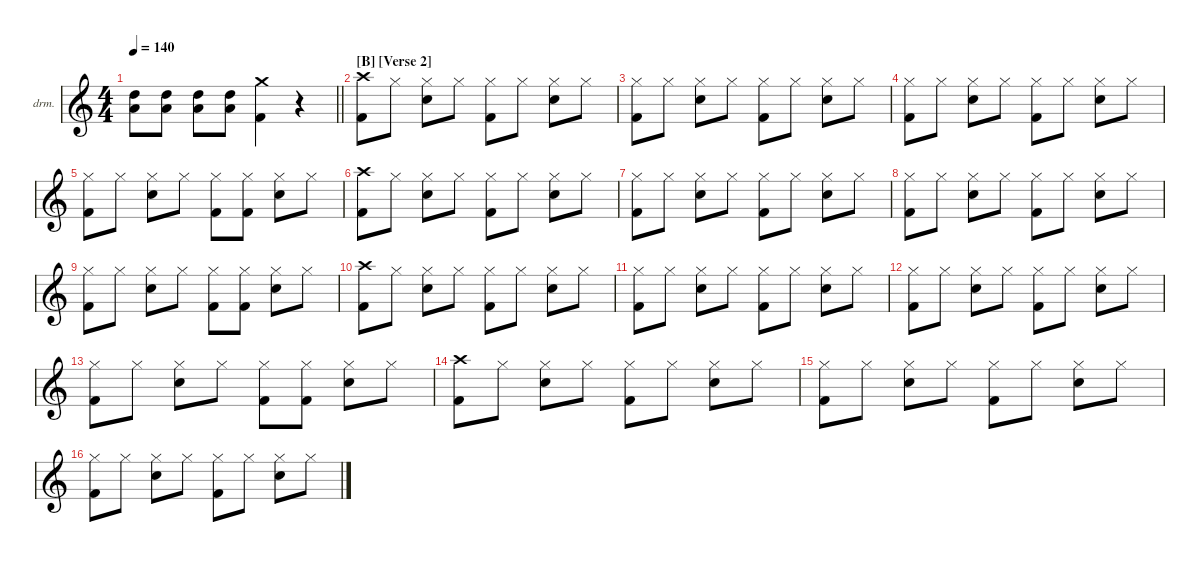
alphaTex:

\defaultSystemsLayout 4
\hideDynamics
\bracketExtendMode nobrackets
\firstSystemTrackNameOrientation horizontal
\track ("Sepehr Tajbakhsh {Nick Menza}" "drm.") {instrument percussion}
\staff {score}
\articulation defaults
\ts (4 4)
\tempo 140
\clef g2
\barLineRight lightlight
\ks c
("High Tom (hit)" "Low Tom (hit)").8{dy f beam Down} ("High Tom (hit)" "Low Tom (hit)").8{beam Down} ("High Tom (hit)" "Low Tom (hit)").8{beam Down} ("High Tom (hit)" "Low Tom (hit)").8{beam Down} ("Crash medium (hit)" "Kick (hit) 2").4{beam Down} r.4{beam Down} |
\section ("B" "[Verse 2]")
("Crash high (hit)" "Kick (hit) 2").8{beam Down} "Hi-Hat (closed)".8{beam Down} ("Hi-Hat (closed)" "Snare (hit) 2").8{beam Down} "Hi-Hat (closed)".8{beam Down} ("Hi-Hat (closed)" "Kick (hit) 2").8{beam Down} "Hi-Hat (closed)".8{beam Down} ("Hi-Hat (closed)" "Snare (hit) 2").8{beam Down} "Hi-Hat (closed)".8{beam Down} |
("Hi-Hat (closed)" "Kick (hit) 2").8{beam Down} "Hi-Hat (closed)".8{beam Down} ("Hi-Hat (closed)" "Snare (hit) 2").8{beam Down} "Hi-Hat (closed)".8{beam Down} ("Hi-Hat (closed)" "Kick (hit) 2").8{beam Down} "Hi-Hat (closed)".8{beam Down} ("Hi-Hat (closed)" "Snare (hit) 2").8{beam Down} "Hi-Hat (closed)".8{beam Down} |
("Hi-Hat (closed)" "Kick (hit) 2").8{beam Down} "Hi-Hat (closed)".8{beam Down} ("Hi-Hat (closed)" "Snare (hit) 2").8{beam Down} "Hi-Hat (closed)".8{beam Down} ("Hi-Hat (closed)" "Kick (hit) 2").8{beam Down} "Hi-Hat (closed)".8{beam Down} ("Hi-Hat (closed)" "Snare (hit) 2").8{beam Down} "Hi-Hat (closed)".8{beam Down} |
("Hi-Hat (closed)" "Kick (hit) 2").8{beam Down} "Hi-Hat (closed)".8{beam Down} ("Hi-Hat (closed)" "Snare (hit) 2").8{beam Down} "Hi-Hat (closed)".8{beam Down} ("Hi-Hat (closed)" "Kick (hit) 2").8{beam Down} ("Hi-Hat (closed)" "Kick (hit) 2").8{beam Down} ("Hi-Hat (closed)" "Snare (hit) 2").8{beam Down} "Hi-Hat (closed)".8{beam Down} |
("Crash high (hit)" "Kick (hit) 2").8{beam Down} "Hi-Hat (closed)".8{beam Down} ("Hi-Hat (closed)" "Snare (hit) 2").8{beam Down} "Hi-Hat (closed)".8{beam Down} ("Hi-Hat (closed)" "Kick (hit) 2").8{beam Down} "Hi-Hat (closed)".8{beam Down} ("Hi-Hat (closed)" "Snare (hit) 2").8{beam Down} "Hi-Hat (closed)".8{beam Down} |
("Hi-Hat (closed)" "Kick (hit) 2").8{beam Down} "Hi-Hat (closed)".8{beam Down} ("Hi-Hat (closed)" "Snare (hit) 2").8{beam Down} "Hi-Hat (closed)".8{beam Down} ("Hi-Hat (closed)" "Kick (hit) 2").8{beam Down} "Hi-Hat (closed)".8{beam Down} ("Hi-Hat (closed)" "Snare (hit) 2").8{beam Down} "Hi-Hat (closed)".8{beam Down} |
("Hi-Hat (closed)" "Kick (hit) 2").8{beam Down} "Hi-Hat (closed)".8{beam Down} ("Hi-Hat (closed)" "Snare (hit) 2").8{beam Down} "Hi-Hat (closed)".8{beam Down} ("Hi-Hat (closed)" "Kick (hit) 2").8{beam Down} "Hi-Hat (closed)".8{beam Down} ("Hi-Hat (closed)" "Snare (hit) 2").8{beam Down} "Hi-Hat (closed)".8{beam Down} |
("Hi-Hat (closed)" "Kick (hit) 2").8{beam Down} "Hi-Hat (closed)".8{beam Down} ("Hi-Hat (closed)" "Snare (hit) 2").8{beam Down} "Hi-Hat (closed)".8{beam Down} ("Hi-Hat (closed)" "Kick (hit) 2").8{beam Down} ("Hi-Hat (closed)" "Kick (hit) 2").8{beam Down} ("Hi-Hat (closed)" "Snare (hit) 2").8{beam Down} "Hi-Hat (closed)".8{beam Down} |
("Crash high (hit)" "Kick (hit) 2").8{beam Down} "Hi-Hat (closed)".8{beam Down} ("Hi-Hat (closed)" "Snare (hit) 2").8{beam Down} "Hi-Hat (closed)".8{beam Down} ("Hi-Hat (closed)" "Kick (hit) 2").8{beam Down} "Hi-Hat (closed)".8{beam Down} ("Hi-Hat (closed)" "Snare (hit) 2").8{beam Down} "Hi-Hat (closed)".8{beam Down} |
("Hi-Hat (closed)" "Kick (hit) 2").8{beam Down} "Hi-Hat (closed)".8{beam Down} ("Hi-Hat (closed)" "Snare (hit) 2").8{beam Down} "Hi-Hat (closed)".8{beam Down} ("Hi-Hat (closed)" "Kick (hit) 2").8{beam Down} "Hi-Hat (closed)".8{beam Down} ("Hi-Hat (closed)" "Snare (hit) 2").8{beam Down} "Hi-Hat (closed)".8{beam Down} |
("Hi-Hat (closed)" "Kick (hit) 2").8{beam Down} "Hi-Hat (closed)".8{beam Down} ("Hi-Hat (closed)" "Snare (hit) 2").8{beam Down} "Hi-Hat (closed)".8{beam Down} ("Hi-Hat (closed)" "Kick (hit) 2").8{beam Down} "Hi-Hat (closed)".8{beam Down} ("Hi-Hat (closed)" "Snare (hit) 2").8{beam Down} "Hi-Hat (closed)".8{beam Down} |
("Hi-Hat (closed)" "Kick (hit) 2").8{beam Down} "Hi-Hat (closed)".8{beam Down} ("Hi-Hat (closed)" "Snare (hit) 2").8{beam Down} "Hi-Hat (closed)".8{beam Down} ("Hi-Hat (closed)" "Kick (hit) 2").8{beam Down} ("Hi-Hat (closed)" "Kick (hit) 2").8{beam Down} ("Hi-Hat (closed)" "Snare (hit) 2").8{beam Down} "Hi-Hat (closed)".8{beam Down} |
("Crash high (hit)" "Kick (hit) 2").8{beam Down} "Hi-Hat (closed)".8{beam Down} ("Hi-Hat (closed)" "Snare (hit) 2").8{beam Down} "Hi-Hat (closed)".8{beam Down} ("Hi-Hat (closed)" "Kick (hit) 2").8{beam Down} "Hi-Hat (closed)".8{beam Down} ("Hi-Hat (closed)" "Snare (hit) 2").8{beam Down} "Hi-Hat (closed)".8{beam Down} |
("Hi-Hat (closed)" "Kick (hit) 2").8{beam Down} "Hi-Hat (closed)".8{beam Down} ("Hi-Hat (closed)" "Snare (hit) 2").8{beam Down} "Hi-Hat (closed)".8{beam Down} ("Hi-Hat (closed)" "Kick (hit) 2").8{beam Down} "Hi-Hat (closed)".8{beam Down} ("Hi-Hat (closed)" "Snare (hit) 2").8{beam Down} "Hi-Hat (closed)".8{beam Down} |
("Hi-Hat (closed)" "Kick (hit) 2").8{beam Down} "Hi-Hat (closed)".8{beam Down} ("Hi-Hat (closed)" "Snare (hit) 2").8{beam Down} "Hi-Hat (closed)".8{beam Down} ("Hi-Hat (closed)" "Kick (hit) 2").8{beam Down} "Hi-Hat (closed)".8{beam Down} ("Hi-Hat (closed)" "Snare (hit) 2").8{beam Down} "Hi-Hat (closed)".8{beam Down}
